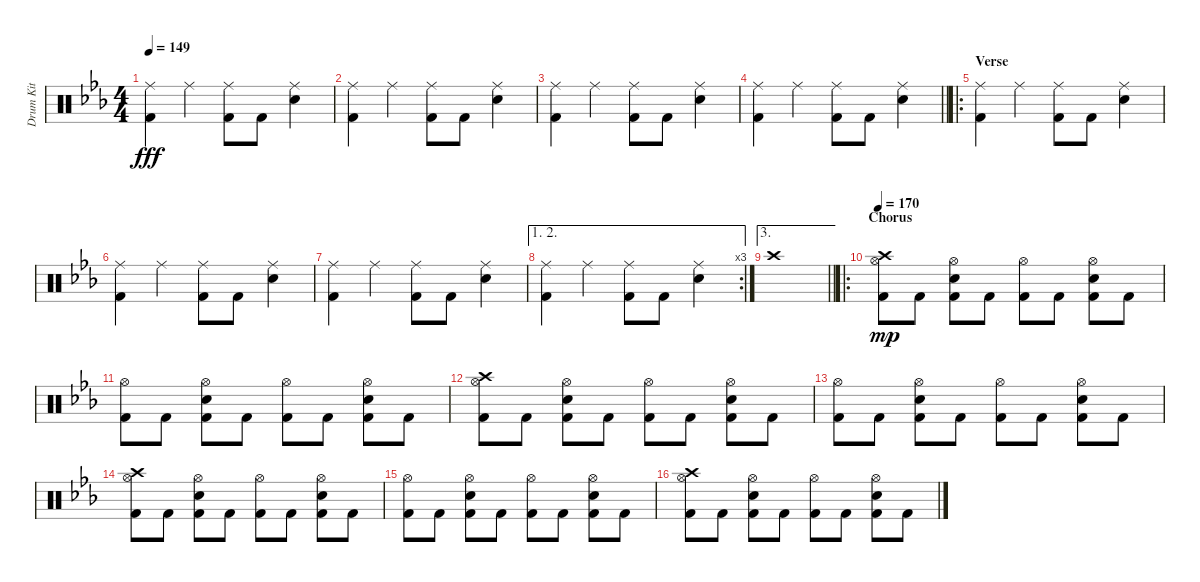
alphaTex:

\track ("Drum Kit" "Drum Kit") {instrument percussion}
\staff {score}
\articulation defaults
\ts (4 4)
\tempo 149
\clef neutral
\ks cminor
("Ride (middle)" "Kick (hit) 2").4{dy fff} "Ride (middle)".4 ("Ride (middle)" "Kick (hit) 2").8 "Kick (hit) 2".8 ("Ride (middle)" "Electric Snare (hit)").4 |
("Ride (middle)" "Kick (hit) 2").4 "Ride (middle)".4 ("Ride (middle)" "Kick (hit) 2").8 "Kick (hit) 2".8 ("Ride (middle)" "Electric Snare (hit)").4 |
("Ride (middle)" "Kick (hit) 2").4 "Ride (middle)".4 ("Ride (middle)" "Kick (hit) 2").8 "Kick (hit) 2".8 ("Ride (middle)" "Electric Snare (hit)").4 |
\barLineRight lightlight
("Ride (middle)" "Kick (hit) 2").4 "Ride (middle)".4 ("Ride (middle)" "Kick (hit) 2").8 "Kick (hit) 2".8 ("Ride (middle)" "Electric Snare (hit)").4 |
\ro
\section ("" "Verse")
("Ride (middle)" "Kick (hit) 2").4 "Ride (middle)".4 ("Ride (middle)" "Kick (hit) 2").8 "Kick (hit) 2".8 ("Ride (middle)" "Electric Snare (hit)").4 |
("Ride (middle)" "Kick (hit) 2").4 "Ride (middle)".4 ("Ride (middle)" "Kick (hit) 2").8 "Kick (hit) 2".8 ("Ride (middle)" "Electric Snare (hit)").4 |
("Ride (middle)" "Kick (hit) 2").4 "Ride (middle)".4 ("Ride (middle)" "Kick (hit) 2").8 "Kick (hit) 2".8 ("Ride (middle)" "Electric Snare (hit)").4 |
\ae (1 2)
\rc 3
("Ride (middle)" "Kick (hit) 2").4 "Ride (middle)".4 ("Ride (middle)" "Kick (hit) 2").8 "Kick (hit) 2".8 ("Ride (middle)" "Electric Snare (hit)").4 |
\ae 3
\barLineRight lightlight "Crash high (hit)".1
|
\ro
\section ("" "Chorus")
\tempo 170
("Crash high (hit)" "Hi-Hat (open)" "Kick (hit) 2").8{dy mp} "Kick (hit) 2".8 ("Hi-Hat (open)" "Electric Snare (hit)" "Kick (hit) 2").8 "Kick (hit) 2".8 ("Hi-Hat (open)" "Kick (hit) 2").8 "Kick (hit) 2".8 ("Hi-Hat (open)" "Electric Snare (hit)" "Kick (hit) 2").8 "Kick (hit) 2".8 |
("Hi-Hat (open)" "Kick (hit) 2").8 "Kick (hit) 2".8 ("Hi-Hat (open)" "Electric Snare (hit)" "Kick (hit) 2").8 "Kick (hit) 2".8 ("Hi-Hat (open)" "Kick (hit) 2").8 "Kick (hit) 2".8 ("Hi-Hat (open)" "Electric Snare (hit)" "Kick (hit) 2").8 "Kick (hit) 2".8 |
("Crash high (hit)" "Hi-Hat (open)" "Kick (hit) 2").8 "Kick (hit) 2".8 ("Hi-Hat (open)" "Electric Snare (hit)" "Kick (hit) 2").8 "Kick (hit) 2".8 ("Hi-Hat (open)" "Kick (hit) 2").8 "Kick (hit) 2".8 ("Hi-Hat (open)" "Electric Snare (hit)" "Kick (hit) 2").8 "Kick (hit) 2".8 |
("Hi-Hat (open)" "Kick (hit) 2").8 "Kick (hit) 2".8 ("Hi-Hat (open)" "Electric Snare (hit)" "Kick (hit) 2").8 "Kick (hit) 2".8 ("Hi-Hat (open)" "Kick (hit) 2").8 "Kick (hit) 2".8 ("Hi-Hat (open)" "Electric Snare (hit)" "Kick (hit) 2").8 "Kick (hit) 2".8 |
("Crash high (hit)" "Hi-Hat (open)" "Kick (hit) 2").8 "Kick (hit) 2".8 ("Hi-Hat (open)" "Electric Snare (hit)" "Kick (hit) 2").8 "Kick (hit) 2".8 ("Hi-Hat (open)" "Kick (hit) 2").8 "Kick (hit) 2".8 ("Hi-Hat (open)" "Electric Snare (hit)" "Kick (hit) 2").8 "Kick (hit) 2".8 |
("Hi-Hat (open)" "Kick (hit) 2").8 "Kick (hit) 2".8 ("Hi-Hat (open)" "Electric Snare (hit)" "Kick (hit) 2").8 "Kick (hit) 2".8 ("Hi-Hat (open)" "Kick (hit) 2").8 "Kick (hit) 2".8 ("Hi-Hat (open)" "Electric Snare (hit)" "Kick (hit) 2").8 "Kick (hit) 2".8 |
("Crash high (hit)" "Hi-Hat (open)" "Kick (hit) 2").8 "Kick (hit) 2".8 ("Hi-Hat (open)" "Electric Snare (hit)" "Kick (hit) 2").8 "Kick (hit) 2".8 ("Hi-Hat (open)" "Kick (hit) 2").8 "Kick (hit) 2".8 ("Hi-Hat (open)" "Electric Snare (hit)" "Kick (hit) 2").8 "Kick (hit) 2".8
